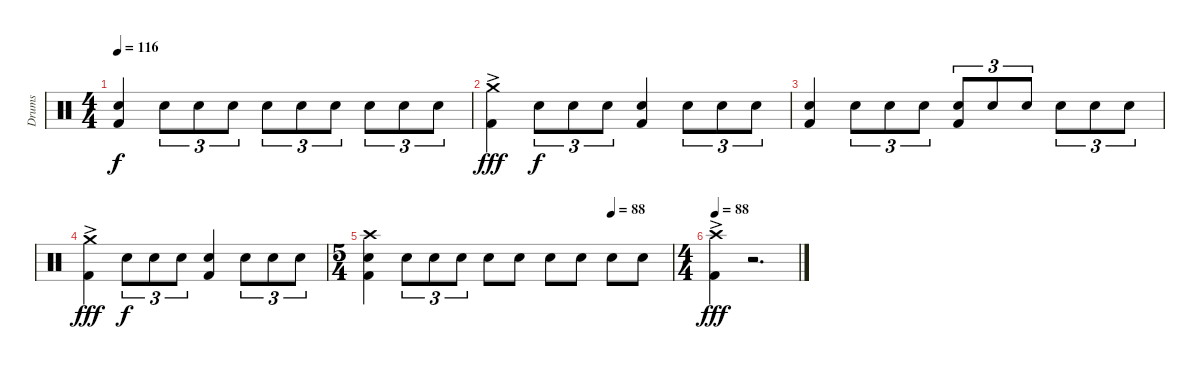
\track ("Drums" "Drums") {instrument percussion}
\staff {score}
\articulation defaults
\ts (4 4)
\tempo 116
\clef neutral
\ks c
("Electric Snare (hit)" "Kick (hit) 2").4{dy f} "Electric Snare (hit)".8{tu (3 2)} "Electric Snare (hit)".8{tu (3 2)} "Electric Snare (hit)".8{tu (3 2)} "Electric Snare (hit)".8{tu (3 2)} "Electric Snare (hit)".8{tu (3 2)} "Electric Snare (hit)".8{tu (3 2)} "Electric Snare (hit)".8{tu (3 2)} "Electric Snare (hit)".8{tu (3 2)} "Electric Snare (hit)".8{tu (3 2)} |
("Crash medium (hit)" "Kick (hit) 2"{ac}).4{dy fff} "Electric Snare (hit)".8{tu (3 2) dy f} "Electric Snare (hit)".8{tu (3 2)} "Electric Snare (hit)".8{tu (3 2)} ("Electric Snare (hit)" "Kick (hit) 2").4 "Electric Snare (hit)".8{tu (3 2)} "Electric Snare (hit)".8{tu (3 2)} "Electric Snare (hit)".8{tu (3 2)} |
("Electric Snare (hit)" "Kick (hit) 2").4 "Electric Snare (hit)".8{tu (3 2)} "Electric Snare (hit)".8{tu (3 2)} "Electric Snare (hit)".8{tu (3 2)} ("Electric Snare (hit)" "Kick (hit) 2").8{tu (3 2)} "Electric Snare (hit)".8{tu (3 2)} "Electric Snare (hit)".8{tu (3 2)} "Electric Snare (hit)".8{tu (3 2)} "Electric Snare (hit)".8{tu (3 2)} "Electric Snare (hit)".8{tu (3 2)} |
("Crash medium (hit)" "Kick (hit) 2"{ac}).4{dy fff} "Electric Snare (hit)".8{tu (3 2) dy f} "Electric Snare (hit)".8{tu (3 2)} "Electric Snare (hit)".8{tu (3 2)} ("Electric Snare (hit)" "Kick (hit) 2").4 "Electric Snare (hit)".8{tu (3 2)} "Electric Snare (hit)".8{tu (3 2)} "Electric Snare (hit)".8{tu (3 2)} |
\ts (5 4)
\tempo (88 0.8)
("Crash high (hit)" "Electric Snare (hit)" "Kick (hit) 2").4 "Electric Snare (hit)".8{tu (3 2)} "Electric Snare (hit)".8{tu (3 2)} "Electric Snare (hit)".8{tu (3 2)} "Electric Snare (hit)".8 "Electric Snare (hit)".8 "Electric Snare (hit)".8 "Electric Snare (hit)".8 "Electric Snare (hit)".8 "Electric Snare (hit)".8 |
\ts (4 4)
\tempo 88
("Crash high (hit)"{ac} "Kick (hit) 2"{ac}).4{dy fff} r.2{d}
